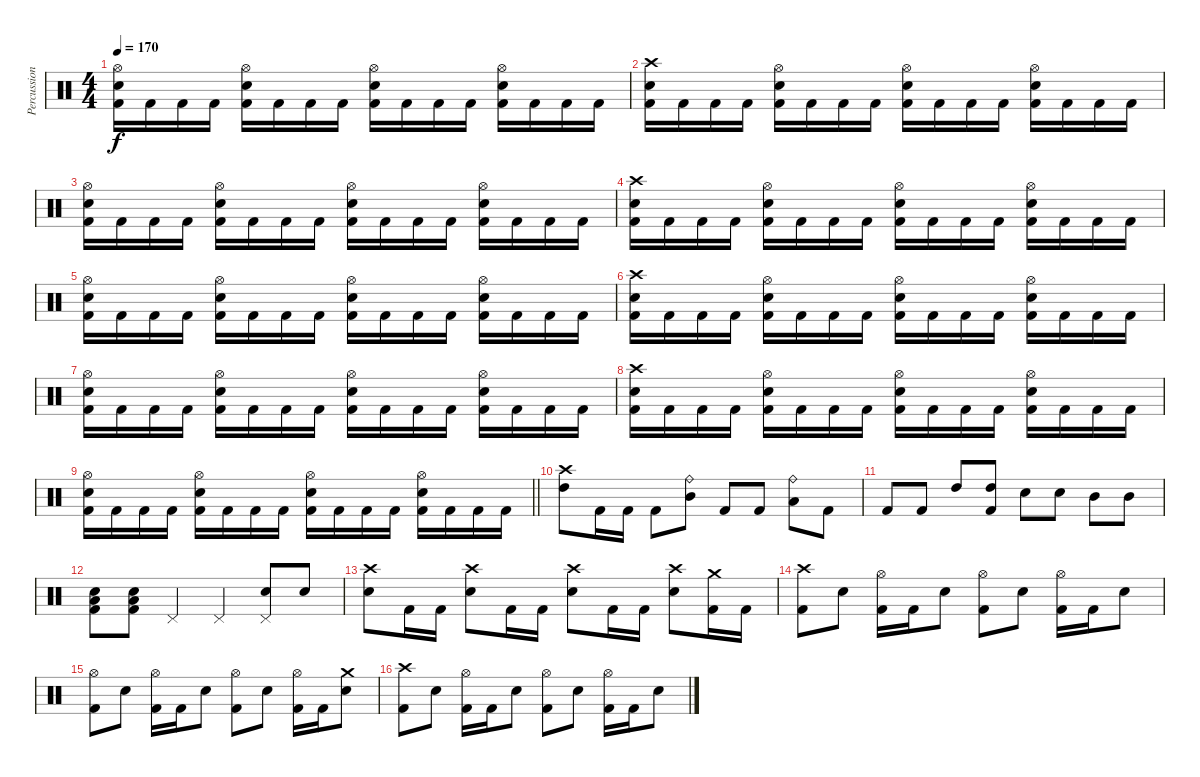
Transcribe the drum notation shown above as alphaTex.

\track ("Percussion" "Percussion") {instrument percussion}
\staff {score}
\articulation defaults
\ts (4 4)
\tempo 170
\clef neutral
\ks c
("Hi-Hat (open)" "Snare (hit) 2" "Kick (hit) 2").16{dy f} "Kick (hit) 2".16 "Kick (hit) 2".16 "Kick (hit) 2".16 ("Hi-Hat (open)" "Snare (hit) 2" "Kick (hit) 2").16 "Kick (hit) 2".16 "Kick (hit) 2".16 "Kick (hit) 2".16 ("Hi-Hat (open)" "Snare (hit) 2" "Kick (hit) 2").16 "Kick (hit) 2".16 "Kick (hit) 2".16 "Kick (hit) 2".16 ("Hi-Hat (open)" "Snare (hit) 2" "Kick (hit) 2").16 "Kick (hit) 2".16 "Kick (hit) 2".16 "Kick (hit) 2".16 |
("Crash high (hit)" "Snare (hit) 2" "Kick (hit) 2").16 "Kick (hit) 2".16 "Kick (hit) 2".16 "Kick (hit) 2".16 ("Hi-Hat (open)" "Snare (hit) 2" "Kick (hit) 2").16 "Kick (hit) 2".16 "Kick (hit) 2".16 "Kick (hit) 2".16 ("Hi-Hat (open)" "Snare (hit) 2" "Kick (hit) 2").16 "Kick (hit) 2".16 "Kick (hit) 2".16 "Kick (hit) 2".16 ("Hi-Hat (open)" "Snare (hit) 2" "Kick (hit) 2").16 "Kick (hit) 2".16 "Kick (hit) 2".16 "Kick (hit) 2".16 |
("Hi-Hat (open)" "Snare (hit) 2" "Kick (hit) 2").16 "Kick (hit) 2".16 "Kick (hit) 2".16 "Kick (hit) 2".16 ("Hi-Hat (open)" "Snare (hit) 2" "Kick (hit) 2").16 "Kick (hit) 2".16 "Kick (hit) 2".16 "Kick (hit) 2".16 ("Hi-Hat (open)" "Snare (hit) 2" "Kick (hit) 2").16 "Kick (hit) 2".16 "Kick (hit) 2".16 "Kick (hit) 2".16 ("Hi-Hat (open)" "Snare (hit) 2" "Kick (hit) 2").16 "Kick (hit) 2".16 "Kick (hit) 2".16 "Kick (hit) 2".16 |
("Crash high (hit)" "Snare (hit) 2" "Kick (hit) 2").16 "Kick (hit) 2".16 "Kick (hit) 2".16 "Kick (hit) 2".16 ("Hi-Hat (open)" "Snare (hit) 2" "Kick (hit) 2").16 "Kick (hit) 2".16 "Kick (hit) 2".16 "Kick (hit) 2".16 ("Hi-Hat (open)" "Snare (hit) 2" "Kick (hit) 2").16 "Kick (hit) 2".16 "Kick (hit) 2".16 "Kick (hit) 2".16 ("Hi-Hat (open)" "Snare (hit) 2" "Kick (hit) 2").16 "Kick (hit) 2".16 "Kick (hit) 2".16 "Kick (hit) 2".16 |
("Hi-Hat (open)" "Snare (hit) 2" "Kick (hit) 2").16 "Kick (hit) 2".16 "Kick (hit) 2".16 "Kick (hit) 2".16 ("Hi-Hat (open)" "Snare (hit) 2" "Kick (hit) 2").16 "Kick (hit) 2".16 "Kick (hit) 2".16 "Kick (hit) 2".16 ("Hi-Hat (open)" "Snare (hit) 2" "Kick (hit) 2").16 "Kick (hit) 2".16 "Kick (hit) 2".16 "Kick (hit) 2".16 ("Hi-Hat (open)" "Snare (hit) 2" "Kick (hit) 2").16 "Kick (hit) 2".16 "Kick (hit) 2".16 "Kick (hit) 2".16 |
("Crash high (hit)" "Snare (hit) 2" "Kick (hit) 2").16 "Kick (hit) 2".16 "Kick (hit) 2".16 "Kick (hit) 2".16 ("Hi-Hat (open)" "Snare (hit) 2" "Kick (hit) 2").16 "Kick (hit) 2".16 "Kick (hit) 2".16 "Kick (hit) 2".16 ("Hi-Hat (open)" "Snare (hit) 2" "Kick (hit) 2").16 "Kick (hit) 2".16 "Kick (hit) 2".16 "Kick (hit) 2".16 ("Hi-Hat (open)" "Snare (hit) 2" "Kick (hit) 2").16 "Kick (hit) 2".16 "Kick (hit) 2".16 "Kick (hit) 2".16 |
("Hi-Hat (open)" "Snare (hit) 2" "Kick (hit) 2").16 "Kick (hit) 2".16 "Kick (hit) 2".16 "Kick (hit) 2".16 ("Hi-Hat (open)" "Snare (hit) 2" "Kick (hit) 2").16 "Kick (hit) 2".16 "Kick (hit) 2".16 "Kick (hit) 2".16 ("Hi-Hat (open)" "Snare (hit) 2" "Kick (hit) 2").16 "Kick (hit) 2".16 "Kick (hit) 2".16 "Kick (hit) 2".16 ("Hi-Hat (open)" "Snare (hit) 2" "Kick (hit) 2").16 "Kick (hit) 2".16 "Kick (hit) 2".16 "Kick (hit) 2".16 |
("Crash high (hit)" "Snare (hit) 2" "Kick (hit) 2").16 "Kick (hit) 2".16 "Kick (hit) 2".16 "Kick (hit) 2".16 ("Hi-Hat (open)" "Snare (hit) 2" "Kick (hit) 2").16 "Kick (hit) 2".16 "Kick (hit) 2".16 "Kick (hit) 2".16 ("Hi-Hat (open)" "Snare (hit) 2" "Kick (hit) 2").16 "Kick (hit) 2".16 "Kick (hit) 2".16 "Kick (hit) 2".16 ("Hi-Hat (open)" "Snare (hit) 2" "Kick (hit) 2").16 "Kick (hit) 2".16 "Kick (hit) 2".16 "Kick (hit) 2".16 |
\barLineRight lightlight
("Hi-Hat (open)" "Snare (hit) 2" "Kick (hit) 2").16 "Kick (hit) 2".16 "Kick (hit) 2".16 "Kick (hit) 2".16 ("Hi-Hat (open)" "Snare (hit) 2" "Kick (hit) 2").16 "Kick (hit) 2".16 "Kick (hit) 2".16 "Kick (hit) 2".16 ("Hi-Hat (open)" "Snare (hit) 2" "Kick (hit) 2").16 "Kick (hit) 2".16 "Kick (hit) 2".16 "Kick (hit) 2".16 ("Hi-Hat (open)" "Snare (hit) 2" "Kick (hit) 2").16 "Kick (hit) 2".16 "Kick (hit) 2".16 "Kick (hit) 2".16 |
\section ("" "")
("Crash high (hit)" "High Tom (hit)").8 "Kick (hit) 2".16 "Kick (hit) 2".16 "Kick (hit) 2".8 ("Ride (bell)" "Mid Tom (hit)").8 "Kick (hit) 2".8 "Kick (hit) 2".8 ("Ride (bell)" "Low Tom (hit)").8 "Kick (hit) 2".8 |
"Kick (hit) 2".8 "Kick (hit) 2".8 "High Tom (hit)".8 ("High Tom (hit)" "Kick (hit) 2").8 "Snare (hit) 2".8 "Snare (hit) 2".8 "Mid Tom (hit)".8 "Mid Tom (hit)".8 |
("Snare (hit) 2" "Low Tom (hit)" "Kick (hit) 2").8 ("Snare (hit) 2" "Low Tom (hit)" "Kick (hit) 2").8 "Pedal Hi-Hat (hit)".4 "Pedal Hi-Hat (hit)".4 ("Pedal Hi-Hat (hit)" "Snare (hit) 2").8 "Snare (hit) 2".8 |
("Crash high (hit)" "Snare (hit) 2").8 "Kick (hit) 2".16 "Kick (hit) 2".16 ("Crash high (hit)" "Snare (hit) 2").8 "Kick (hit) 2".16 "Kick (hit) 2".16 ("Crash high (hit)" "Snare (hit) 2").8 "Kick (hit) 2".16 "Kick (hit) 2".16 ("Crash high (hit)" "Snare (hit) 2").8 ("Crash medium (hit)" "Kick (hit) 2").16 "Kick (hit) 2".16 |
("Crash high (hit)" "Kick (hit) 2").8 "Snare (hit) 2".8 ("Hi-Hat (open)" "Kick (hit) 2").16 "Kick (hit) 2".16 "Snare (hit) 2".8 ("Hi-Hat (open)" "Kick (hit) 2").8 "Snare (hit) 2".8 ("Hi-Hat (open)" "Kick (hit) 2").16 "Kick (hit) 2".16 "Snare (hit) 2".8 |
("Hi-Hat (open)" "Kick (hit) 2").8 "Snare (hit) 2".8 ("Hi-Hat (open)" "Kick (hit) 2").16 "Kick (hit) 2".16 "Snare (hit) 2".8 ("Hi-Hat (open)" "Kick (hit) 2").8 "Snare (hit) 2".8 ("Hi-Hat (open)" "Kick (hit) 2").16 "Kick (hit) 2".16 ("Crash medium (hit)" "Snare (hit) 2").8 |
("Crash high (hit)" "Kick (hit) 2").8 "Snare (hit) 2".8 ("Hi-Hat (open)" "Kick (hit) 2").16 "Kick (hit) 2".16 "Snare (hit) 2".8 ("Hi-Hat (open)" "Kick (hit) 2").8 "Snare (hit) 2".8 ("Hi-Hat (open)" "Kick (hit) 2").16 "Kick (hit) 2".16 "Snare (hit) 2".8
